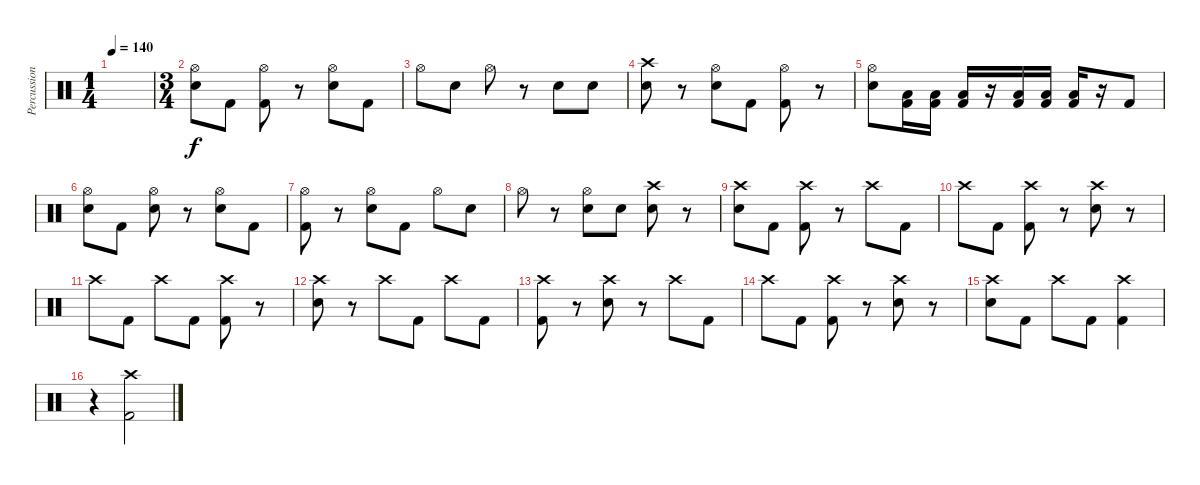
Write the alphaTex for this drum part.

\track ("Percussion" "Percussion") {instrument percussion}
\staff {score}
\articulation defaults
\ts (1 4)
\tempo 140
\clef neutral
\ks c
|
\ts (3 4)
("Hi-Hat (open)" "Electric Snare (hit)").8 "Kick (hit) 2".8 ("Hi-Hat (open)" "Kick (hit) 2").8 r.8 ("Hi-Hat (open)" "Electric Snare (hit)").8 "Kick (hit) 2".8 |
"Hi-Hat (open)".8 "Electric Snare (hit)".8 "Hi-Hat (open)".8 r.8 "Electric Snare (hit)".8 "Electric Snare (hit)".8 |
("Crash high (hit)" "Electric Snare (hit)").8 r.8 ("Electric Snare (hit)" "Hi-Hat (open)").8 "Kick (hit) 2".8 ("Kick (hit) 2" "Hi-Hat (open)").8 r.8 |
("Electric Snare (hit)" "Hi-Hat (open)").8 ("Low Tom (hit)" "Kick (hit) 2").16 ("Low Tom (hit)" "Kick (hit) 2").16 ("Low Tom (hit)" "Kick (hit) 2").16 r.16 ("Low Tom (hit)" "Kick (hit) 2").16 ("Low Tom (hit)" "Kick (hit) 2").16 ("Low Tom (hit)" "Kick (hit) 2").16 r.16 "Kick (hit) 2".8 |
("Electric Snare (hit)" "Hi-Hat (open)").8 "Kick (hit) 2".8 ("Electric Snare (hit)" "Hi-Hat (open)").8 r.8 ("Electric Snare (hit)" "Hi-Hat (open)").8 "Kick (hit) 2".8 |
("Kick (hit) 2" "Hi-Hat (open)").8 r.8 ("Electric Snare (hit)" "Hi-Hat (open)").8 "Kick (hit) 2".8 "Hi-Hat (open)".8 "Electric Snare (hit)".8 |
"Hi-Hat (open)".8 r.8 ("Electric Snare (hit)" "Hi-Hat (open)").8 "Electric Snare (hit)".8 ("Electric Snare (hit)" "Crash high (hit)").8 r.8 |
("Electric Snare (hit)" "Crash high (hit)").8 "Kick (hit) 2".8 ("Kick (hit) 2" "Crash high (hit)").8 r.8 "Crash high (hit)".8 "Kick (hit) 2".8 |
"Crash high (hit)".8 "Kick (hit) 2".8 ("Kick (hit) 2" "Crash high (hit)").8 r.8 ("Electric Snare (hit)" "Crash high (hit)").8 r.8 |
"Crash high (hit)".8 "Kick (hit) 2".8 "Crash high (hit)".8 "Kick (hit) 2".8 ("Kick (hit) 2" "Crash high (hit)").8 r.8 |
("Electric Snare (hit)" "Crash high (hit)").8 r.8 "Crash high (hit)".8 "Kick (hit) 2".8 "Crash high (hit)".8 "Kick (hit) 2".8 |
("Kick (hit) 2" "Crash high (hit)").8 r.8 ("Electric Snare (hit)" "Crash high (hit)").8 r.8 "Crash high (hit)".8 "Kick (hit) 2".8 |
"Crash high (hit)".8 "Kick (hit) 2".8 ("Kick (hit) 2" "Crash high (hit)").8 r.8 ("Electric Snare (hit)" "Crash high (hit)").8 r.8 |
("Electric Snare (hit)" "Crash high (hit)").8 "Kick (hit) 2".8 "Crash high (hit)".8 "Kick (hit) 2".8 ("Crash high (hit)" "Kick (hit) 2").4 |
r.4 ("Crash high (hit)" "Kick (hit) 2").2
